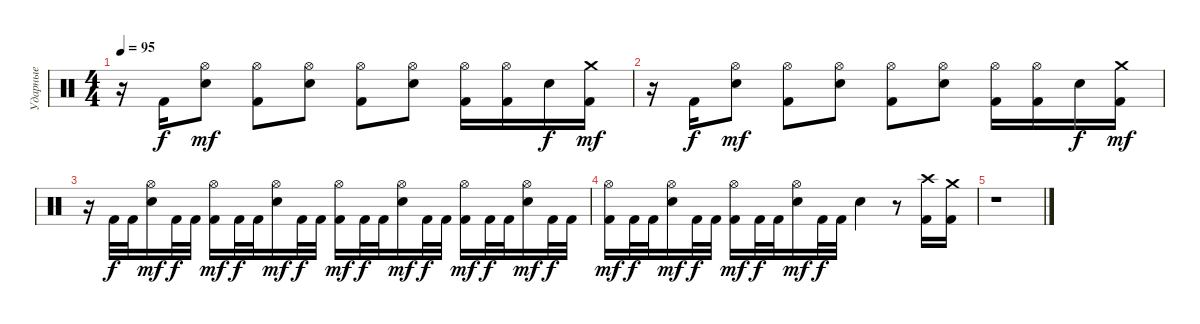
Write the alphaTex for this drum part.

\track ("Ударные" "Ударные") {instrument percussion}
\staff {score}
\articulation defaults
\ts (4 4)
\tempo 95
\clef neutral
\ks c
r.16{dy mf} "Kick (hit) 2".16{dy f} ("Hi-Hat (open)" "Snare (hit) 2").8{dy mf} ("Hi-Hat (open)" "Kick (hit) 2").8 ("Hi-Hat (open)" "Snare (hit) 2").8 ("Hi-Hat (open)" "Kick (hit) 2").8 ("Hi-Hat (open)" "Snare (hit) 2").8 ("Hi-Hat (open)" "Kick (hit) 2").16 ("Hi-Hat (open)" "Kick (hit) 2").16 "Snare (hit) 2".16{dy f} ("Crash medium (hit)" "Kick (hit) 2").16{dy mf} |
r.16 "Kick (hit) 2".16{dy f} ("Hi-Hat (open)" "Snare (hit) 2").8{dy mf} ("Hi-Hat (open)" "Kick (hit) 2").8 ("Hi-Hat (open)" "Snare (hit) 2").8 ("Hi-Hat (open)" "Kick (hit) 2").8 ("Hi-Hat (open)" "Snare (hit) 2").8 ("Hi-Hat (open)" "Kick (hit) 2").16 ("Hi-Hat (open)" "Kick (hit) 2").16 "Snare (hit) 2".16{dy f} ("Crash medium (hit)" "Kick (hit) 2").16{dy mf} |
r.16 "Kick (hit) 2".32{dy f} "Kick (hit) 2".32 ("Hi-Hat (open)" "Snare (hit) 2").16{dy mf} "Kick (hit) 2".32{dy f} "Kick (hit) 2".32 ("Hi-Hat (open)" "Kick (hit) 2").16{dy mf} "Kick (hit) 2".32{dy f} "Kick (hit) 2".32 ("Hi-Hat (open)" "Snare (hit) 2").16{dy mf} "Kick (hit) 2".32{dy f} "Kick (hit) 2".32 ("Hi-Hat (open)" "Kick (hit) 2").16{dy mf} "Kick (hit) 2".32{dy f} "Kick (hit) 2".32 ("Hi-Hat (open)" "Snare (hit) 2").16{dy mf} "Kick (hit) 2".32{dy f} "Kick (hit) 2".32 ("Hi-Hat (open)" "Kick (hit) 2").16{dy mf} "Kick (hit) 2".32{dy f} "Kick (hit) 2".32 ("Hi-Hat (open)" "Snare (hit) 2").16{dy mf} "Kick (hit) 2".32{dy f} "Kick (hit) 2".32 |
("Hi-Hat (open)" "Kick (hit) 2").16{dy mf} "Kick (hit) 2".32{dy f} "Kick (hit) 2".32 ("Hi-Hat (open)" "Snare (hit) 2").16{dy mf} "Kick (hit) 2".32{dy f} "Kick (hit) 2".32 ("Hi-Hat (open)" "Kick (hit) 2").16{dy mf} "Kick (hit) 2".32{dy f} "Kick (hit) 2".32 ("Hi-Hat (open)" "Snare (hit) 2").16{dy mf} "Kick (hit) 2".32{dy f} "Kick (hit) 2".32 "Snare (hit) 2".4 r.8 ("Crash high (hit)" "Kick (hit) 2").16 ("Crash medium (hit)" "Kick (hit) 2").16 |
r.1
